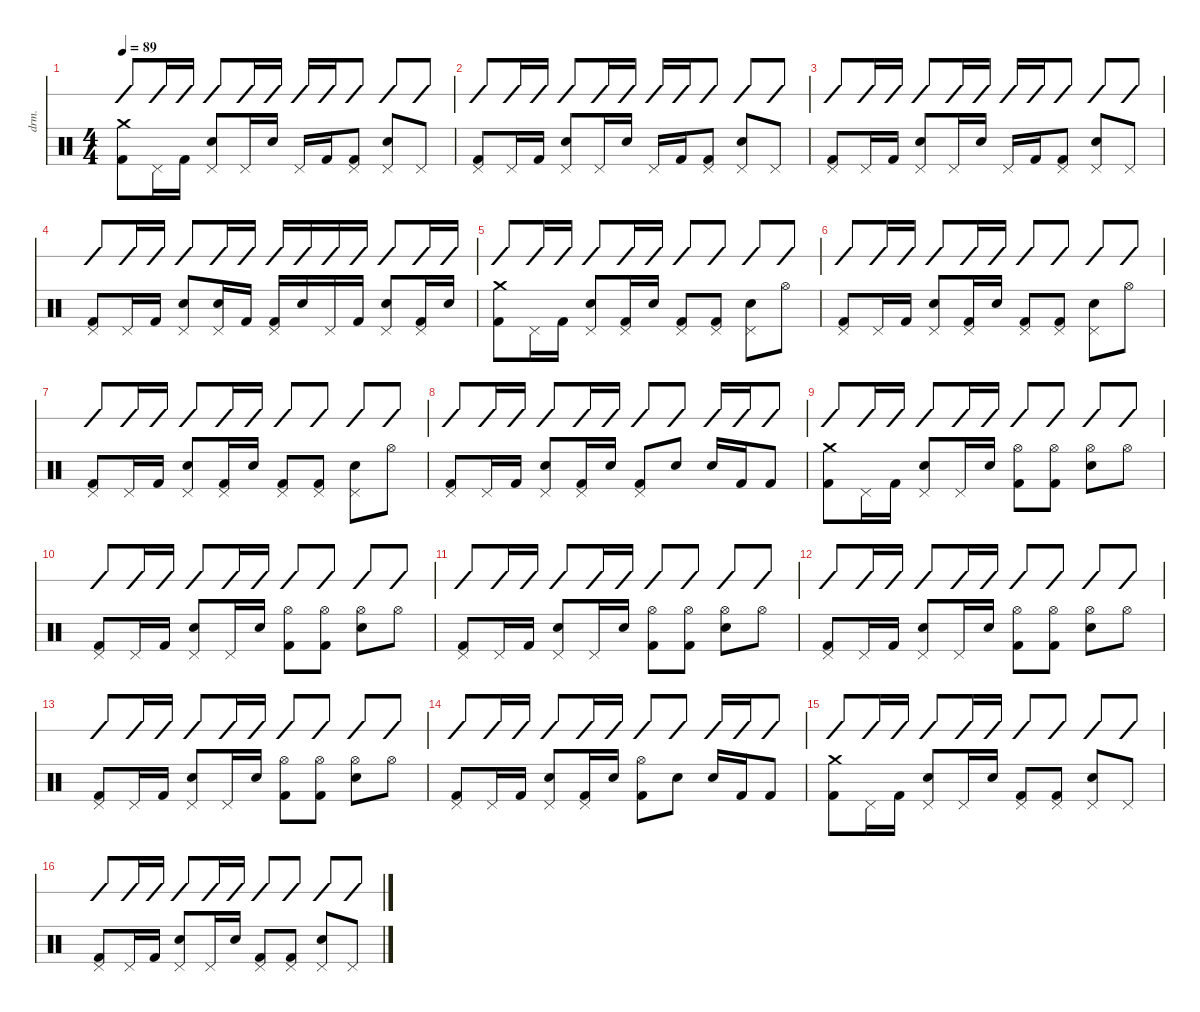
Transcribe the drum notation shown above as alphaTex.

\defaultSystemsLayout 4
\hideDynamics
\bracketExtendMode nobrackets
\otherSystemsTrackNameOrientation horizontal
\track ("Drumkit" "drm.") {instrument percussion}
\staff {score slash}
\articulation defaults
\ts (4 4)
\tempo 89
\clef neutral
\ks c
("Crash medium (hit)" "Kick (hit) 2").8{dy f beam Down} "Pedal Hi-Hat (hit)".16{beam Down} "Kick (hit) 2".16{beam Down} ("Pedal Hi-Hat (hit)" "Snare (hit) 2").8{beam Up} "Pedal Hi-Hat (hit)".16{beam Up} "Snare (hit) 2".16{beam Up} "Pedal Hi-Hat (hit)".16{beam Up} "Kick (hit) 2".16{beam Up} ("Pedal Hi-Hat (hit)" "Kick (hit) 2").8{beam Up} ("Pedal Hi-Hat (hit)" "Snare (hit) 2").8{beam Up} "Pedal Hi-Hat (hit)".8{beam Up} |
("Pedal Hi-Hat (hit)" "Kick (hit) 2").8{beam Up} "Pedal Hi-Hat (hit)".16{beam Up} "Kick (hit) 2".16{beam Up} ("Pedal Hi-Hat (hit)" "Snare (hit) 2").8{beam Up} "Pedal Hi-Hat (hit)".16{beam Up} "Snare (hit) 2".16{beam Up} "Pedal Hi-Hat (hit)".16{beam Up} "Kick (hit) 2".16{beam Up} ("Pedal Hi-Hat (hit)" "Kick (hit) 2").8{beam Up} ("Pedal Hi-Hat (hit)" "Snare (hit) 2").8{beam Up} "Pedal Hi-Hat (hit)".8{beam Up} |
("Pedal Hi-Hat (hit)" "Kick (hit) 2").8{beam Up} "Pedal Hi-Hat (hit)".16{beam Up} "Kick (hit) 2".16{beam Up} ("Pedal Hi-Hat (hit)" "Snare (hit) 2").8{beam Up} "Pedal Hi-Hat (hit)".16{beam Up} "Snare (hit) 2".16{beam Up} "Pedal Hi-Hat (hit)".16{beam Up} "Kick (hit) 2".16{beam Up} ("Pedal Hi-Hat (hit)" "Kick (hit) 2").8{beam Up} ("Pedal Hi-Hat (hit)" "Snare (hit) 2").8{beam Up} "Pedal Hi-Hat (hit)".8{beam Up} |
("Pedal Hi-Hat (hit)" "Kick (hit) 2").8{beam Up} "Pedal Hi-Hat (hit)".16{beam Up} "Kick (hit) 2".16{beam Up} ("Pedal Hi-Hat (hit)" "Snare (hit) 2").8{beam Up} ("Pedal Hi-Hat (hit)" "Snare (hit) 2").16{beam Up} "Kick (hit) 2".16{beam Up} ("Pedal Hi-Hat (hit)" "Kick (hit) 2").16{beam Up} "Snare (hit) 2".16{beam Up} "Pedal Hi-Hat (hit)".16{beam Up} "Kick (hit) 2".16{beam Up} ("Pedal Hi-Hat (hit)" "Snare (hit) 2").8{beam Up} ("Pedal Hi-Hat (hit)" "Kick (hit) 2").16{beam Up} "Snare (hit) 2".16{beam Up} |
("Crash medium (hit)" "Kick (hit) 2").8{beam Down} "Pedal Hi-Hat (hit)".16{beam Down} "Kick (hit) 2".16{beam Down} ("Pedal Hi-Hat (hit)" "Snare (hit) 2").8{beam Up} ("Pedal Hi-Hat (hit)" "Kick (hit) 2").16{beam Up} "Snare (hit) 2".16{beam Up} ("Pedal Hi-Hat (hit)" "Kick (hit) 2").8{beam Up} ("Pedal Hi-Hat (hit)" "Kick (hit) 2").8{beam Up} ("Pedal Hi-Hat (hit)" "Snare (hit) 2").8{beam Down} "Hi-Hat (open)".8{beam Down} |
("Pedal Hi-Hat (hit)" "Kick (hit) 2").8{beam Up} "Pedal Hi-Hat (hit)".16{beam Up} "Kick (hit) 2".16{beam Up} ("Pedal Hi-Hat (hit)" "Snare (hit) 2").8{beam Up} ("Pedal Hi-Hat (hit)" "Kick (hit) 2").16{beam Up} "Snare (hit) 2".16{beam Up} ("Pedal Hi-Hat (hit)" "Kick (hit) 2").8{beam Up} ("Pedal Hi-Hat (hit)" "Kick (hit) 2").8{beam Up} ("Pedal Hi-Hat (hit)" "Snare (hit) 2").8{beam Down} "Hi-Hat (open)".8{beam Down} |
("Pedal Hi-Hat (hit)" "Kick (hit) 2").8{beam Up} "Pedal Hi-Hat (hit)".16{beam Up} "Kick (hit) 2".16{beam Up} ("Pedal Hi-Hat (hit)" "Snare (hit) 2").8{beam Up} ("Pedal Hi-Hat (hit)" "Kick (hit) 2").16{beam Up} "Snare (hit) 2".16{beam Up} ("Pedal Hi-Hat (hit)" "Kick (hit) 2").8{beam Up} ("Pedal Hi-Hat (hit)" "Kick (hit) 2").8{beam Up} ("Pedal Hi-Hat (hit)" "Snare (hit) 2").8{beam Down} "Hi-Hat (open)".8{beam Down} |
("Pedal Hi-Hat (hit)" "Kick (hit) 2").8{beam Up} "Pedal Hi-Hat (hit)".16{beam Up} "Kick (hit) 2".16{beam Up} ("Pedal Hi-Hat (hit)" "Snare (hit) 2").8{beam Up} ("Pedal Hi-Hat (hit)" "Kick (hit) 2").16{beam Up} "Snare (hit) 2".16{beam Up} ("Pedal Hi-Hat (hit)" "Kick (hit) 2").8{beam Up} "Snare (hit) 2".8{beam Up} "Snare (hit) 2".16{beam Up} "Kick (hit) 2".16{beam Up} "Kick (hit) 2".8{beam Up} |
("Crash medium (hit)" "Kick (hit) 2").8{beam Down} "Pedal Hi-Hat (hit)".16{beam Down} "Kick (hit) 2".16{beam Down} ("Pedal Hi-Hat (hit)" "Snare (hit) 2").8{beam Up} "Pedal Hi-Hat (hit)".16{beam Up} "Snare (hit) 2".16{beam Up} ("Hi-Hat (open)" "Kick (hit) 2").8{beam Down} ("Hi-Hat (open)" "Kick (hit) 2").8{beam Down} ("Hi-Hat (open)" "Snare (hit) 2").8{beam Down} "Hi-Hat (open)".8{beam Down} |
("Pedal Hi-Hat (hit)" "Kick (hit) 2").8{beam Up} "Pedal Hi-Hat (hit)".16{beam Up} "Kick (hit) 2".16{beam Up} ("Pedal Hi-Hat (hit)" "Snare (hit) 2").8{beam Up} "Pedal Hi-Hat (hit)".16{beam Up} "Snare (hit) 2".16{beam Up} ("Hi-Hat (open)" "Kick (hit) 2").8{beam Down} ("Hi-Hat (open)" "Kick (hit) 2").8{beam Down} ("Hi-Hat (open)" "Snare (hit) 2").8{beam Down} "Hi-Hat (open)".8{beam Down} |
("Pedal Hi-Hat (hit)" "Kick (hit) 2").8{beam Up} "Pedal Hi-Hat (hit)".16{beam Up} "Kick (hit) 2".16{beam Up} ("Pedal Hi-Hat (hit)" "Snare (hit) 2").8{beam Up} "Pedal Hi-Hat (hit)".16{beam Up} "Snare (hit) 2".16{beam Up} ("Hi-Hat (open)" "Kick (hit) 2").8{beam Down} ("Hi-Hat (open)" "Kick (hit) 2").8{beam Down} ("Hi-Hat (open)" "Snare (hit) 2").8{beam Down} "Hi-Hat (open)".8{beam Down} |
("Pedal Hi-Hat (hit)" "Kick (hit) 2").8{beam Up} "Pedal Hi-Hat (hit)".16{beam Up} "Kick (hit) 2".16{beam Up} ("Pedal Hi-Hat (hit)" "Snare (hit) 2").8{beam Up} "Pedal Hi-Hat (hit)".16{beam Up} "Snare (hit) 2".16{beam Up} ("Hi-Hat (open)" "Kick (hit) 2").8{beam Down} ("Hi-Hat (open)" "Kick (hit) 2").8{beam Down} ("Hi-Hat (open)" "Snare (hit) 2").8{beam Down} "Hi-Hat (open)".8{beam Down} |
("Pedal Hi-Hat (hit)" "Kick (hit) 2").8{beam Up} "Pedal Hi-Hat (hit)".16{beam Up} "Kick (hit) 2".16{beam Up} ("Pedal Hi-Hat (hit)" "Snare (hit) 2").8{beam Up} "Pedal Hi-Hat (hit)".16{beam Up} "Snare (hit) 2".16{beam Up} ("Hi-Hat (open)" "Kick (hit) 2").8{beam Down} ("Hi-Hat (open)" "Kick (hit) 2").8{beam Down} ("Hi-Hat (open)" "Snare (hit) 2").8{beam Down} "Hi-Hat (open)".8{beam Down} |
("Pedal Hi-Hat (hit)" "Kick (hit) 2").8{beam Up} "Pedal Hi-Hat (hit)".16{beam Up} "Kick (hit) 2".16{beam Up} ("Pedal Hi-Hat (hit)" "Snare (hit) 2").8{beam Up} ("Pedal Hi-Hat (hit)" "Kick (hit) 2").16{beam Up} "Snare (hit) 2".16{beam Up} ("Hi-Hat (open)" "Kick (hit) 2").8{beam Down} "Snare (hit) 2".8{beam Down} "Snare (hit) 2".16{beam Up} "Kick (hit) 2".16{beam Up} "Kick (hit) 2".8{beam Up} |
("Crash medium (hit)" "Kick (hit) 2").8{beam Down} "Pedal Hi-Hat (hit)".16{beam Down} "Kick (hit) 2".16{beam Down} ("Pedal Hi-Hat (hit)" "Snare (hit) 2").8{beam Up} "Pedal Hi-Hat (hit)".16{beam Up} "Snare (hit) 2".16{beam Up} ("Pedal Hi-Hat (hit)" "Kick (hit) 2").8{beam Up} ("Pedal Hi-Hat (hit)" "Kick (hit) 2").8{beam Up} ("Pedal Hi-Hat (hit)" "Snare (hit) 2").8{beam Up} "Pedal Hi-Hat (hit)".8{beam Up} |
("Pedal Hi-Hat (hit)" "Kick (hit) 2").8{beam Up} "Pedal Hi-Hat (hit)".16{beam Up} "Kick (hit) 2".16{beam Up} ("Pedal Hi-Hat (hit)" "Snare (hit) 2").8{beam Up} "Pedal Hi-Hat (hit)".16{beam Up} "Snare (hit) 2".16{beam Up} ("Pedal Hi-Hat (hit)" "Kick (hit) 2").8{beam Up} ("Pedal Hi-Hat (hit)" "Kick (hit) 2").8{beam Up} ("Pedal Hi-Hat (hit)" "Snare (hit) 2").8{beam Up} "Pedal Hi-Hat (hit)".8{beam Up}
